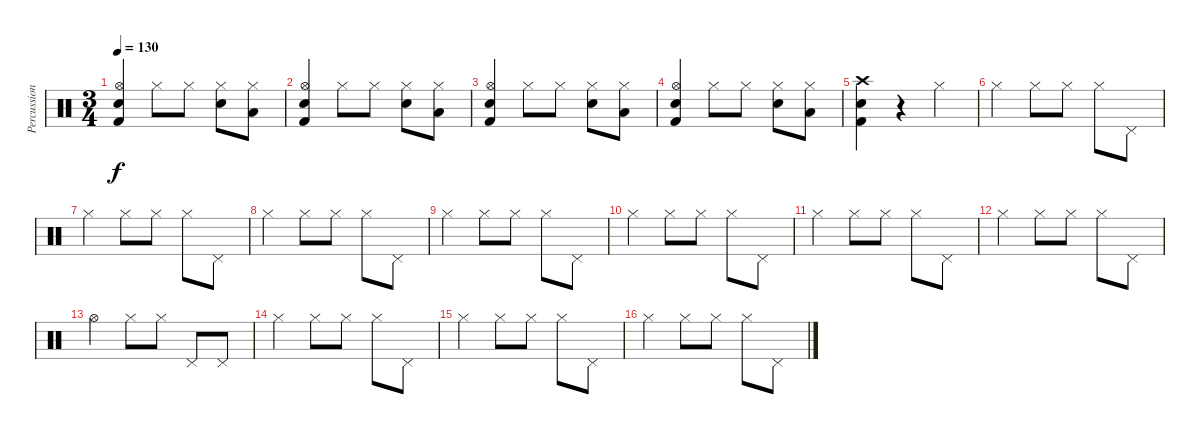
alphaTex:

\track ("Percussion" "Percussion") {instrument percussion}
\staff {score}
\articulation defaults
\ts (3 4)
\tempo 130
\clef neutral
\ks c
("Snare (hit) 2" "Hi-Hat (open)" "Kick (hit) 2").4{dy f} "Hi-Hat (closed)".8 "Hi-Hat (closed)".8 ("Snare (hit) 2" "Hi-Hat (closed)").8 ("Low Tom (hit)" "Hi-Hat (closed)").8 |
("Snare (hit) 2" "Hi-Hat (open)" "Kick (hit) 2").4 "Hi-Hat (closed)".8 "Hi-Hat (closed)".8 ("Snare (hit) 2" "Hi-Hat (closed)").8 ("Low Tom (hit)" "Hi-Hat (closed)").8 |
("Snare (hit) 2" "Hi-Hat (open)" "Kick (hit) 2").4 "Hi-Hat (closed)".8 "Hi-Hat (closed)".8 ("Snare (hit) 2" "Hi-Hat (closed)").8 ("Low Tom (hit)" "Hi-Hat (closed)").8 |
("Snare (hit) 2" "Hi-Hat (open)" "Kick (hit) 2").4 "Hi-Hat (closed)".8 "Hi-Hat (closed)".8 ("Snare (hit) 2" "Hi-Hat (closed)").8 ("Low Tom (hit)" "Hi-Hat (closed)").8 |
("Snare (hit) 2" "Crash high (hit)" "Kick (hit) 2").4 r.4 "Hi-Hat (closed)".4 |
"Hi-Hat (closed)".4 "Hi-Hat (closed)".8 "Hi-Hat (closed)".8 "Hi-Hat (closed)".8 "Pedal Hi-Hat (hit)".8 |
"Hi-Hat (closed)".4 "Hi-Hat (closed)".8 "Hi-Hat (closed)".8 "Hi-Hat (closed)".8 "Pedal Hi-Hat (hit)".8 |
"Hi-Hat (closed)".4 "Hi-Hat (closed)".8 "Hi-Hat (closed)".8 "Hi-Hat (closed)".8 "Pedal Hi-Hat (hit)".8 |
"Hi-Hat (closed)".4 "Hi-Hat (closed)".8 "Hi-Hat (closed)".8 "Hi-Hat (closed)".8 "Pedal Hi-Hat (hit)".8 |
"Hi-Hat (closed)".4 "Hi-Hat (closed)".8 "Hi-Hat (closed)".8 "Hi-Hat (closed)".8 "Pedal Hi-Hat (hit)".8 |
"Hi-Hat (closed)".4 "Hi-Hat (closed)".8 "Hi-Hat (closed)".8 "Hi-Hat (closed)".8 "Pedal Hi-Hat (hit)".8 |
"Hi-Hat (closed)".4 "Hi-Hat (closed)".8 "Hi-Hat (closed)".8 "Hi-Hat (closed)".8 "Pedal Hi-Hat (hit)".8 |
"Hi-Hat (open)".4 "Hi-Hat (closed)".8 "Hi-Hat (closed)".8 "Pedal Hi-Hat (hit)".8 "Pedal Hi-Hat (hit)".8 |
"Hi-Hat (closed)".4 "Hi-Hat (closed)".8 "Hi-Hat (closed)".8 "Hi-Hat (closed)".8 "Pedal Hi-Hat (hit)".8 |
"Hi-Hat (closed)".4 "Hi-Hat (closed)".8 "Hi-Hat (closed)".8 "Hi-Hat (closed)".8 "Pedal Hi-Hat (hit)".8 |
"Hi-Hat (closed)".4 "Hi-Hat (closed)".8 "Hi-Hat (closed)".8 "Hi-Hat (closed)".8 "Pedal Hi-Hat (hit)".8
